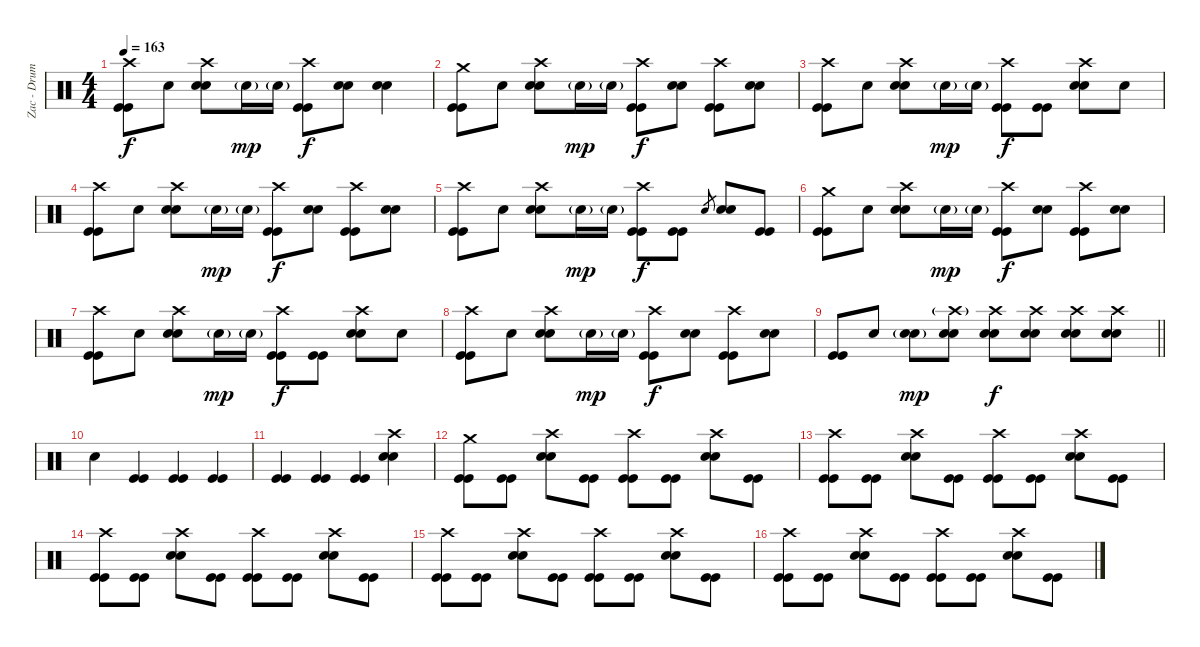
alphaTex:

\track ("Zac - Drums" "Zac - Drum") {instrument percussion}
\staff {score}
\articulation defaults
\ts (4 4)
\tempo 163
\clef neutral
\ks c
("Crash high (hit)" "Kick (hit)" "Kick (hit)").8{dy f} "Snare (hit)".8 ("Crash high (hit)" "Electric Snare (hit)" "Electric Snare (hit)").8 "Electric Snare (hit)"{g}.16{dy mp} "Electric Snare (hit)"{g}.16 ("Crash high (hit)" "Kick (hit)" "Kick (hit)").8{dy f} ("Electric Snare (hit)" "Electric Snare (hit)").8 ("Electric Snare (hit)" "Electric Snare (hit)").4 |
("Crash medium (hit)" "Kick (hit)" "Kick (hit)").8 "Snare (hit)".8 ("Crash high (hit)" "Electric Snare (hit)" "Electric Snare (hit)").8 "Electric Snare (hit)"{g}.16{dy mp} "Electric Snare (hit)"{g}.16 ("Crash high (hit)" "Kick (hit)" "Kick (hit)").8{dy f} ("Electric Snare (hit)" "Electric Snare (hit)").8 ("Crash high (hit)" "Kick (hit)" "Kick (hit)").8 ("Electric Snare (hit)" "Electric Snare (hit)").8 |
("Crash high (hit)" "Kick (hit)" "Kick (hit)").8 "Snare (hit)".8 ("Crash high (hit)" "Electric Snare (hit)" "Electric Snare (hit)").8 "Electric Snare (hit)"{g}.16{dy mp} "Electric Snare (hit)"{g}.16 ("Crash high (hit)" "Kick (hit)" "Kick (hit)").8{dy f} ("Kick (hit)" "Kick (hit)").8 ("Crash high (hit)" "Electric Snare (hit)" "Electric Snare (hit)").8 "Snare (hit)".8 |
("Crash high (hit)" "Kick (hit)" "Kick (hit)").8 "Snare (hit)".8 ("Crash high (hit)" "Electric Snare (hit)" "Electric Snare (hit)").8 "Electric Snare (hit)"{g}.16{dy mp} "Electric Snare (hit)"{g}.16 ("Crash high (hit)" "Kick (hit)" "Kick (hit)").8{dy f} ("Electric Snare (hit)" "Electric Snare (hit)").8 ("Crash high (hit)" "Kick (hit)" "Kick (hit)").8 ("Electric Snare (hit)" "Electric Snare (hit)").8 |
("Crash high (hit)" "Kick (hit)" "Kick (hit)").8 "Snare (hit)".8 ("Crash high (hit)" "Electric Snare (hit)" "Electric Snare (hit)").8 "Electric Snare (hit)"{g}.16{dy mp} "Electric Snare (hit)"{g}.16 ("Crash high (hit)" "Kick (hit)" "Kick (hit)").8{dy f} ("Kick (hit)" "Kick (hit)").8 "Electric Snare (hit)".8{gr} ("Electric Snare (hit)" "Electric Snare (hit)").8 ("Kick (hit)" "Kick (hit)").8 |
("Crash medium (hit)" "Kick (hit)" "Kick (hit)").8 "Snare (hit)".8 ("Crash high (hit)" "Electric Snare (hit)" "Electric Snare (hit)").8 "Electric Snare (hit)"{g}.16{dy mp} "Electric Snare (hit)"{g}.16 ("Crash high (hit)" "Kick (hit)" "Kick (hit)").8{dy f} ("Electric Snare (hit)" "Electric Snare (hit)").8 ("Crash high (hit)" "Kick (hit)" "Kick (hit)").8 ("Electric Snare (hit)" "Electric Snare (hit)").8 |
("Crash high (hit)" "Kick (hit)" "Kick (hit)").8 "Snare (hit)".8 ("Crash high (hit)" "Electric Snare (hit)" "Electric Snare (hit)").8 "Electric Snare (hit)"{g}.16{dy mp} "Electric Snare (hit)"{g}.16 ("Crash high (hit)" "Kick (hit)" "Kick (hit)").8{dy f} ("Kick (hit)" "Kick (hit)").8 ("Crash high (hit)" "Electric Snare (hit)" "Electric Snare (hit)").8 "Snare (hit)".8 |
("Crash high (hit)" "Kick (hit)" "Kick (hit)").8 "Snare (hit)".8 ("Crash high (hit)" "Electric Snare (hit)" "Electric Snare (hit)").8 "Electric Snare (hit)"{g}.16{dy mp} "Electric Snare (hit)"{g}.16 ("Crash high (hit)" "Kick (hit)" "Kick (hit)").8{dy f} ("Electric Snare (hit)" "Electric Snare (hit)").8 ("Crash high (hit)" "Kick (hit)" "Kick (hit)").8 ("Electric Snare (hit)" "Electric Snare (hit)").8 |
\barLineRight lightlight
("Kick (hit)" "Kick (hit)").8 "Electric Snare (hit)".8 ("Electric Snare (hit)"{g} "Electric Snare (hit)").8{dy mp} ("Crash high (hit)"{g} "Electric Snare (hit)" "Electric Snare (hit)").8 ("Crash high (hit)" "Electric Snare (hit)" "Electric Snare (hit)").8{dy f} ("Crash high (hit)" "Electric Snare (hit)" "Electric Snare (hit)").8 ("Crash high (hit)" "Electric Snare (hit)" "Electric Snare (hit)").8 ("Crash high (hit)" "Electric Snare (hit)" "Electric Snare (hit)").8 |
"Snare (hit)".4 ("Kick (hit)" "Kick (hit)").4 ("Kick (hit)" "Kick (hit)").4 ("Kick (hit)" "Kick (hit)").4 |
("Kick (hit)" "Kick (hit)").4 ("Kick (hit)" "Kick (hit)").4 ("Kick (hit)" "Kick (hit)").4 ("Crash high (hit)" "Electric Snare (hit)" "Electric Snare (hit)").4 |
("Crash medium (hit)" "Kick (hit)" "Kick (hit)").8 ("Kick (hit)" "Kick (hit)").8 ("Crash high (hit)" "Electric Snare (hit)" "Electric Snare (hit)").8 ("Kick (hit)" "Kick (hit)").8 ("Crash high (hit)" "Kick (hit)" "Kick (hit)").8 ("Kick (hit)" "Kick (hit)").8 ("Crash high (hit)" "Electric Snare (hit)" "Electric Snare (hit)").8 ("Kick (hit)" "Kick (hit)").8 |
("Crash high (hit)" "Kick (hit)" "Kick (hit)").8 ("Kick (hit)" "Kick (hit)").8 ("Crash high (hit)" "Electric Snare (hit)" "Electric Snare (hit)").8 ("Kick (hit)" "Kick (hit)").8 ("Crash high (hit)" "Kick (hit)" "Kick (hit)").8 ("Kick (hit)" "Kick (hit)").8 ("Crash high (hit)" "Electric Snare (hit)" "Electric Snare (hit)").8 ("Kick (hit)" "Kick (hit)").8 |
("Crash high (hit)" "Kick (hit)" "Kick (hit)").8 ("Kick (hit)" "Kick (hit)").8 ("Crash high (hit)" "Electric Snare (hit)" "Electric Snare (hit)").8 ("Kick (hit)" "Kick (hit)").8 ("Crash high (hit)" "Kick (hit)" "Kick (hit)").8 ("Kick (hit)" "Kick (hit)").8 ("Crash high (hit)" "Electric Snare (hit)" "Electric Snare (hit)").8 ("Kick (hit)" "Kick (hit)").8 |
("Crash high (hit)" "Kick (hit)" "Kick (hit)").8 ("Kick (hit)" "Kick (hit)").8 ("Crash high (hit)" "Electric Snare (hit)" "Electric Snare (hit)").8 ("Kick (hit)" "Kick (hit)").8 ("Crash high (hit)" "Kick (hit)" "Kick (hit)").8 ("Kick (hit)" "Kick (hit)").8 ("Crash high (hit)" "Electric Snare (hit)" "Electric Snare (hit)").8 ("Kick (hit)" "Kick (hit)").8 |
("Crash high (hit)" "Kick (hit)" "Kick (hit)").8 ("Kick (hit)" "Kick (hit)").8 ("Crash high (hit)" "Electric Snare (hit)" "Electric Snare (hit)").8 ("Kick (hit)" "Kick (hit)").8 ("Crash high (hit)" "Kick (hit)" "Kick (hit)").8 ("Kick (hit)" "Kick (hit)").8 ("Crash high (hit)" "Electric Snare (hit)" "Electric Snare (hit)").8 ("Kick (hit)" "Kick (hit)").8
